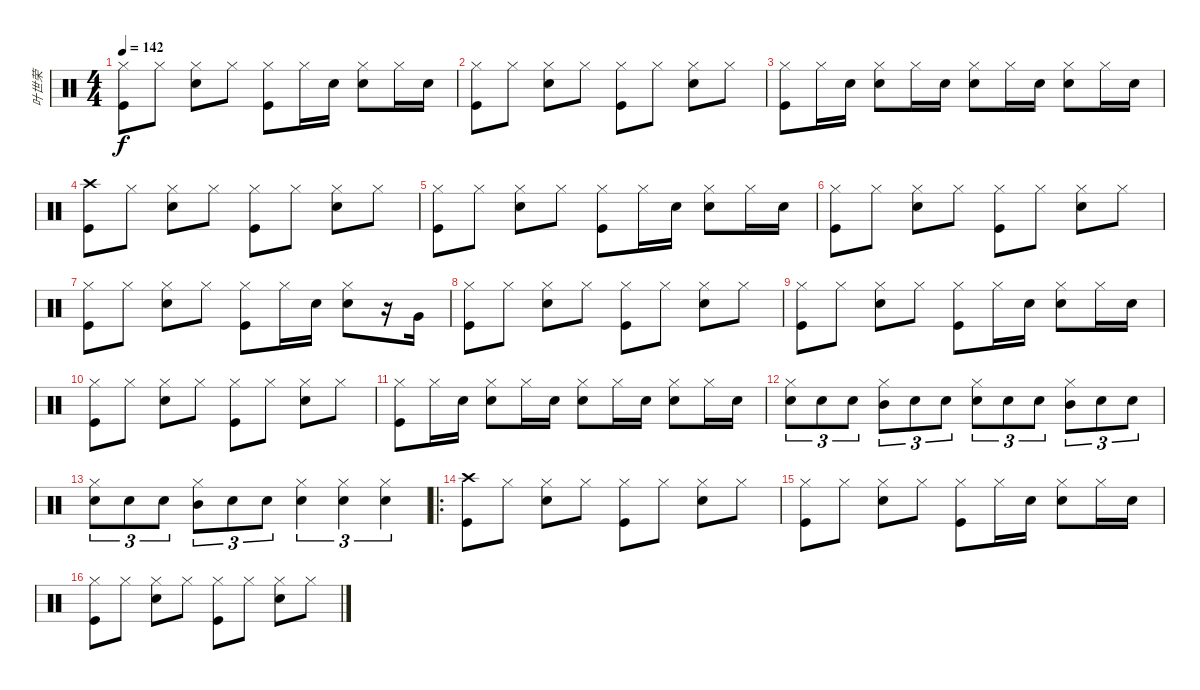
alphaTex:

\track ("叶世荣" "叶世荣") {instrument percussion}
\staff {score}
\articulation defaults
\ts (4 4)
\tempo 142
\clef neutral
\ks c
("Hi-Hat (closed)" "Kick (hit)").8{dy f} "Hi-Hat (closed)".8 ("Hi-Hat (closed)" "Snare (hit) 2").8 "Hi-Hat (closed)".8 ("Hi-Hat (closed)" "Kick (hit)").8 "Hi-Hat (closed)".16 "Snare (hit) 2".16 ("Hi-Hat (closed)" "Snare (hit) 2").8 "Hi-Hat (closed)".16 "Snare (hit) 2".16 |
("Hi-Hat (closed)" "Kick (hit)").8 "Hi-Hat (closed)".8 ("Hi-Hat (closed)" "Snare (hit) 2").8 "Hi-Hat (closed)".8 ("Hi-Hat (closed)" "Kick (hit)").8 "Hi-Hat (closed)".8 ("Hi-Hat (closed)" "Snare (hit) 2").8 "Hi-Hat (closed)".8 |
("Hi-Hat (closed)" "Kick (hit)").8 "Hi-Hat (closed)".16 "Snare (hit) 2".16 ("Hi-Hat (closed)" "Snare (hit) 2").8 "Hi-Hat (closed)".16 "Snare (hit) 2".16 ("Hi-Hat (closed)" "Snare (hit) 2").8 "Hi-Hat (closed)".16 "Snare (hit) 2".16 ("Hi-Hat (closed)" "Snare (hit) 2").8 "Hi-Hat (closed)".16 "Snare (hit) 2".16 |
("Crash high (hit)" "Kick (hit)").8 "Hi-Hat (closed)".8 ("Hi-Hat (closed)" "Snare (hit) 2").8 "Hi-Hat (closed)".8 ("Hi-Hat (closed)" "Kick (hit)").8 "Hi-Hat (closed)".8 ("Hi-Hat (closed)" "Snare (hit) 2").8 "Hi-Hat (closed)".8 |
("Hi-Hat (closed)" "Kick (hit)").8 "Hi-Hat (closed)".8 ("Hi-Hat (closed)" "Snare (hit) 2").8 "Hi-Hat (closed)".8 ("Hi-Hat (closed)" "Kick (hit)").8 "Hi-Hat (closed)".16 "Snare (hit) 2".16 ("Hi-Hat (closed)" "Snare (hit) 2").8 "Hi-Hat (closed)".16 "Snare (hit) 2".16 |
("Hi-Hat (closed)" "Kick (hit)").8 "Hi-Hat (closed)".8 ("Hi-Hat (closed)" "Snare (hit) 2").8 "Hi-Hat (closed)".8 ("Hi-Hat (closed)" "Kick (hit)").8 "Hi-Hat (closed)".8 ("Hi-Hat (closed)" "Snare (hit) 2").8 "Hi-Hat (closed)".8 |
("Hi-Hat (closed)" "Kick (hit)").8 "Hi-Hat (closed)".8 ("Hi-Hat (closed)" "Snare (hit) 2").8 "Hi-Hat (closed)".8 ("Hi-Hat (closed)" "Kick (hit)").8 "Hi-Hat (closed)".16 "Snare (hit) 2".16 ("Hi-Hat (closed)" "Snare (hit) 2").8 r.16 "Very Low Tom (hit)".16 |
("Hi-Hat (closed)" "Kick (hit)").8 "Hi-Hat (closed)".8 ("Hi-Hat (closed)" "Snare (hit) 2").8 "Hi-Hat (closed)".8 ("Hi-Hat (closed)" "Kick (hit)").8 "Hi-Hat (closed)".8 ("Hi-Hat (closed)" "Snare (hit) 2").8 "Hi-Hat (closed)".8 |
("Hi-Hat (closed)" "Kick (hit)").8 "Hi-Hat (closed)".8 ("Hi-Hat (closed)" "Snare (hit) 2").8 "Hi-Hat (closed)".8 ("Hi-Hat (closed)" "Kick (hit)").8 "Hi-Hat (closed)".16 "Snare (hit) 2".16 ("Hi-Hat (closed)" "Snare (hit) 2").8 "Hi-Hat (closed)".16 "Snare (hit) 2".16 |
("Hi-Hat (closed)" "Kick (hit)").8 "Hi-Hat (closed)".8 ("Hi-Hat (closed)" "Snare (hit) 2").8 "Hi-Hat (closed)".8 ("Hi-Hat (closed)" "Kick (hit)").8 "Hi-Hat (closed)".8 ("Hi-Hat (closed)" "Snare (hit) 2").8 "Hi-Hat (closed)".8 |
("Hi-Hat (closed)" "Kick (hit)").8 "Hi-Hat (closed)".16 "Snare (hit) 2".16 ("Hi-Hat (closed)" "Snare (hit) 2").8 "Hi-Hat (closed)".16 "Snare (hit) 2".16 ("Hi-Hat (closed)" "Snare (hit) 2").8 "Hi-Hat (closed)".16 "Snare (hit) 2".16 ("Hi-Hat (closed)" "Snare (hit) 2").8 "Hi-Hat (closed)".16 "Snare (hit) 2".16 |
("Hi-Hat (closed)" "Snare (hit) 2").8{tu (3 2)} "Snare (hit) 2".8{tu (3 2)} "Snare (hit) 2".8{tu (3 2)} ("Hi-Hat (closed)" "Mid Tom (hit)").8{tu (3 2)} "Snare (hit) 2".8{tu (3 2)} "Snare (hit) 2".8{tu (3 2)} ("Hi-Hat (closed)" "Snare (hit) 2").8{tu (3 2)} "Snare (hit) 2".8{tu (3 2)} "Snare (hit) 2".8{tu (3 2)} ("Hi-Hat (closed)" "Mid Tom (hit)").8{tu (3 2)} "Snare (hit) 2".8{tu (3 2)} "Snare (hit) 2".8{tu (3 2)} |
("Hi-Hat (closed)" "Snare (hit) 2").8{tu (3 2)} "Snare (hit) 2".8{tu (3 2)} "Snare (hit) 2".8{tu (3 2)} ("Hi-Hat (closed)" "Mid Tom (hit)").8{tu (3 2)} "Snare (hit) 2".8{tu (3 2)} "Snare (hit) 2".8{tu (3 2)} ("Hi-Hat (closed)" "Snare (hit) 2").4{tu (3 2)} ("Hi-Hat (closed)" "Snare (hit) 2").4{tu (3 2)} ("Hi-Hat (closed)" "Snare (hit) 2").4{tu (3 2)} |
\ro
("Crash high (hit)" "Kick (hit)").8 "Hi-Hat (closed)".8 ("Hi-Hat (closed)" "Snare (hit) 2").8 "Hi-Hat (closed)".8 ("Hi-Hat (closed)" "Kick (hit)").8 "Hi-Hat (closed)".8 ("Hi-Hat (closed)" "Snare (hit) 2").8 "Hi-Hat (closed)".8 |
("Hi-Hat (closed)" "Kick (hit)").8 "Hi-Hat (closed)".8 ("Hi-Hat (closed)" "Snare (hit) 2").8 "Hi-Hat (closed)".8 ("Hi-Hat (closed)" "Kick (hit)").8 "Hi-Hat (closed)".16 "Snare (hit) 2".16 ("Hi-Hat (closed)" "Snare (hit) 2").8 "Hi-Hat (closed)".16 "Snare (hit) 2".16 |
("Hi-Hat (closed)" "Kick (hit)").8 "Hi-Hat (closed)".8 ("Hi-Hat (closed)" "Snare (hit) 2").8 "Hi-Hat (closed)".8 ("Hi-Hat (closed)" "Kick (hit)").8 "Hi-Hat (closed)".8 ("Hi-Hat (closed)" "Snare (hit) 2").8 "Hi-Hat (closed)".8
